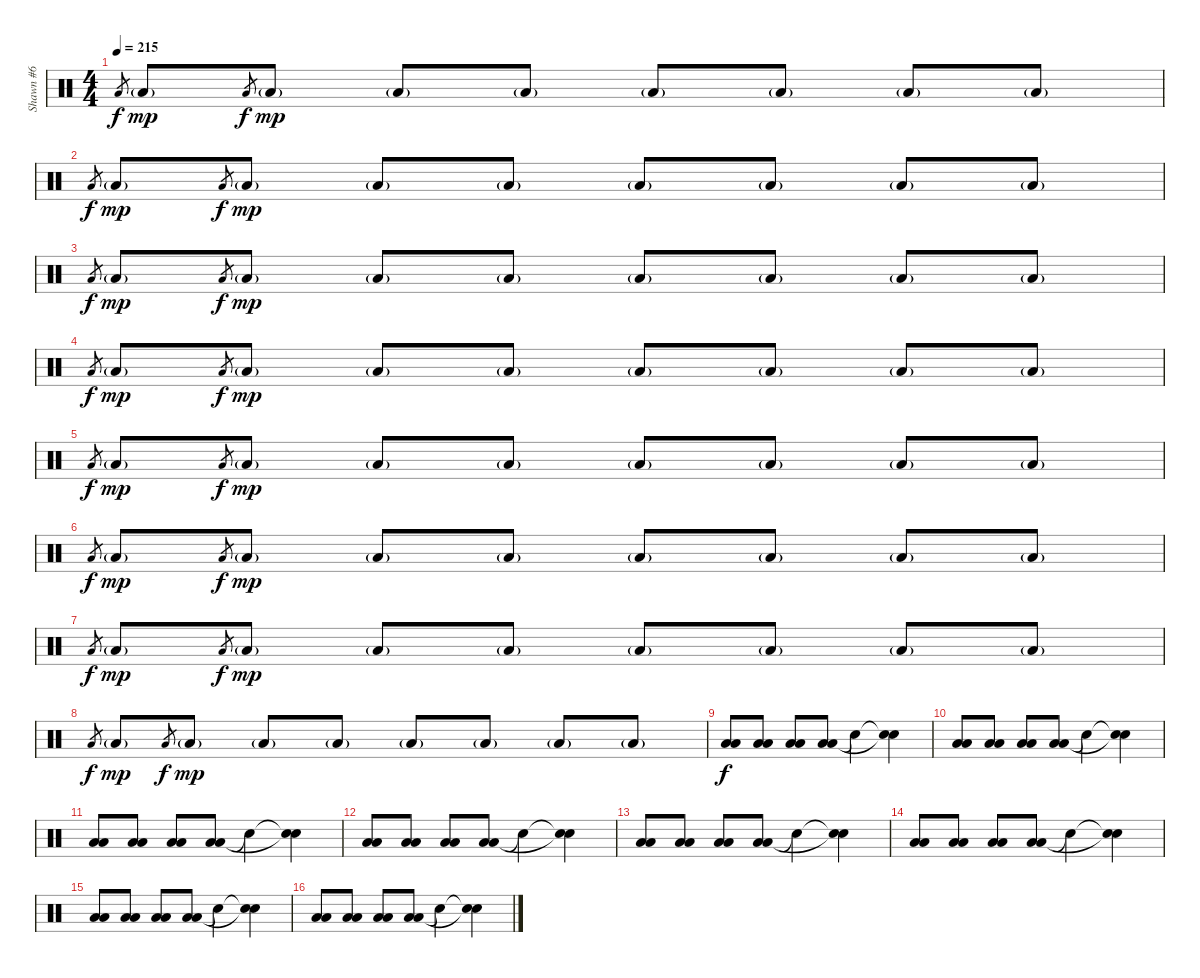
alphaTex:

\track ("Shawn #6" "Shawn #6") {instrument percussion}
\staff {score}
\articulation defaults
\ts (4 4)
\tempo 215
\clef neutral
\ks c "Low Floor Tom (hit)"{sl}.8{gr dy f} "Low Floor Tom (hit)"{g}.8{dy mp} "Low Floor Tom (hit)"{sl}.8{gr dy f} "Low Floor Tom (hit)"{g}.8{dy mp} "Low Floor Tom (hit)"{g}.8 "Low Floor Tom (hit)"{g}.8 "Low Floor Tom (hit)"{g}.8 "Low Floor Tom (hit)"{g}.8 "Low Floor Tom (hit)"{g}.8 "Low Floor Tom (hit)"{g}.8
|
"Low Floor Tom (hit)"{sl}.8{gr dy f} "Low Floor Tom (hit)"{g}.8{dy mp} "Low Floor Tom (hit)"{sl}.8{gr dy f} "Low Floor Tom (hit)"{g}.8{dy mp} "Low Floor Tom (hit)"{g}.8 "Low Floor Tom (hit)"{g}.8 "Low Floor Tom (hit)"{g}.8 "Low Floor Tom (hit)"{g}.8 "Low Floor Tom (hit)"{g}.8 "Low Floor Tom (hit)"{g}.8 |
"Low Floor Tom (hit)"{sl}.8{gr dy f} "Low Floor Tom (hit)"{g}.8{dy mp} "Low Floor Tom (hit)"{sl}.8{gr dy f} "Low Floor Tom (hit)"{g}.8{dy mp} "Low Floor Tom (hit)"{g}.8 "Low Floor Tom (hit)"{g}.8 "Low Floor Tom (hit)"{g}.8 "Low Floor Tom (hit)"{g}.8 "Low Floor Tom (hit)"{g}.8 "Low Floor Tom (hit)"{g}.8 |
"Low Floor Tom (hit)"{sl}.8{gr dy f} "Low Floor Tom (hit)"{g}.8{dy mp} "Low Floor Tom (hit)"{sl}.8{gr dy f} "Low Floor Tom (hit)"{g}.8{dy mp} "Low Floor Tom (hit)"{g}.8 "Low Floor Tom (hit)"{g}.8 "Low Floor Tom (hit)"{g}.8 "Low Floor Tom (hit)"{g}.8 "Low Floor Tom (hit)"{g}.8 "Low Floor Tom (hit)"{g}.8 |
"Low Floor Tom (hit)"{sl}.8{gr dy f} "Low Floor Tom (hit)"{g}.8{dy mp} "Low Floor Tom (hit)"{sl}.8{gr dy f} "Low Floor Tom (hit)"{g}.8{dy mp} "Low Floor Tom (hit)"{g}.8 "Low Floor Tom (hit)"{g}.8 "Low Floor Tom (hit)"{g}.8 "Low Floor Tom (hit)"{g}.8 "Low Floor Tom (hit)"{g}.8 "Low Floor Tom (hit)"{g}.8 |
"Low Floor Tom (hit)"{sl}.8{gr dy f} "Low Floor Tom (hit)"{g}.8{dy mp} "Low Floor Tom (hit)"{sl}.8{gr dy f} "Low Floor Tom (hit)"{g}.8{dy mp} "Low Floor Tom (hit)"{g}.8 "Low Floor Tom (hit)"{g}.8 "Low Floor Tom (hit)"{g}.8 "Low Floor Tom (hit)"{g}.8 "Low Floor Tom (hit)"{g}.8 "Low Floor Tom (hit)"{g}.8 |
"Low Floor Tom (hit)"{sl}.8{gr dy f} "Low Floor Tom (hit)"{g}.8{dy mp} "Low Floor Tom (hit)"{sl}.8{gr dy f} "Low Floor Tom (hit)"{g}.8{dy mp} "Low Floor Tom (hit)"{g}.8 "Low Floor Tom (hit)"{g}.8 "Low Floor Tom (hit)"{g}.8 "Low Floor Tom (hit)"{g}.8 "Low Floor Tom (hit)"{g}.8 "Low Floor Tom (hit)"{g}.8 |
"Low Floor Tom (hit)"{sl}.8{gr dy f} "Low Floor Tom (hit)"{g}.8{dy mp} "Low Floor Tom (hit)"{sl}.8{gr dy f} "Low Floor Tom (hit)"{g}.8{dy mp} "Low Floor Tom (hit)"{g}.8 "Low Floor Tom (hit)"{g}.8 "Low Floor Tom (hit)"{g}.8 "Low Floor Tom (hit)"{g}.8 "Low Floor Tom (hit)"{g}.8 "Low Floor Tom (hit)"{g}.8 |
("Low Floor Tom (hit)" "Low Floor Tom (hit)").8{dy f} ("Low Floor Tom (hit)" "Low Floor Tom (hit)").8 ("Low Floor Tom (hit)" "Low Floor Tom (hit)").8 ("Low Floor Tom (hit)" "Low Floor Tom (hit)").8 "Snare (hit)"{t}.4 ("Snare (hit)"{t} "Snare (hit)"{t}).4 |
("Low Floor Tom (hit)" "Low Floor Tom (hit)").8 ("Low Floor Tom (hit)" "Low Floor Tom (hit)").8 ("Low Floor Tom (hit)" "Low Floor Tom (hit)").8 ("Low Floor Tom (hit)" "Low Floor Tom (hit)").8 "Snare (hit)"{t}.4 ("Snare (hit)"{t} "Snare (hit)"{t}).4 |
("Low Floor Tom (hit)" "Low Floor Tom (hit)").8 ("Low Floor Tom (hit)" "Low Floor Tom (hit)").8 ("Low Floor Tom (hit)" "Low Floor Tom (hit)").8 ("Low Floor Tom (hit)" "Low Floor Tom (hit)").8 "Snare (hit)"{t}.4 ("Snare (hit)"{t} "Snare (hit)"{t}).4 |
("Low Floor Tom (hit)" "Low Floor Tom (hit)").8 ("Low Floor Tom (hit)" "Low Floor Tom (hit)").8 ("Low Floor Tom (hit)" "Low Floor Tom (hit)").8 ("Low Floor Tom (hit)" "Low Floor Tom (hit)").8 "Snare (hit)"{t}.4 ("Snare (hit)"{t} "Snare (hit)"{t}).4 |
("Low Floor Tom (hit)" "Low Floor Tom (hit)").8 ("Low Floor Tom (hit)" "Low Floor Tom (hit)").8 ("Low Floor Tom (hit)" "Low Floor Tom (hit)").8 ("Low Floor Tom (hit)" "Low Floor Tom (hit)").8 "Snare (hit)"{t}.4 ("Snare (hit)"{t} "Snare (hit)"{t}).4 |
("Low Floor Tom (hit)" "Low Floor Tom (hit)").8 ("Low Floor Tom (hit)" "Low Floor Tom (hit)").8 ("Low Floor Tom (hit)" "Low Floor Tom (hit)").8 ("Low Floor Tom (hit)" "Low Floor Tom (hit)").8 "Snare (hit)"{t}.4 ("Snare (hit)"{t} "Snare (hit)"{t}).4 |
("Low Floor Tom (hit)" "Low Floor Tom (hit)").8 ("Low Floor Tom (hit)" "Low Floor Tom (hit)").8 ("Low Floor Tom (hit)" "Low Floor Tom (hit)").8 ("Low Floor Tom (hit)" "Low Floor Tom (hit)").8 "Snare (hit)"{t}.4 ("Snare (hit)"{t} "Snare (hit)"{t}).4 |
("Low Floor Tom (hit)" "Low Floor Tom (hit)").8 ("Low Floor Tom (hit)" "Low Floor Tom (hit)").8 ("Low Floor Tom (hit)" "Low Floor Tom (hit)").8 ("Low Floor Tom (hit)" "Low Floor Tom (hit)").8 "Snare (hit)"{t}.4 ("Snare (hit)"{t} "Snare (hit)"{t}).4
